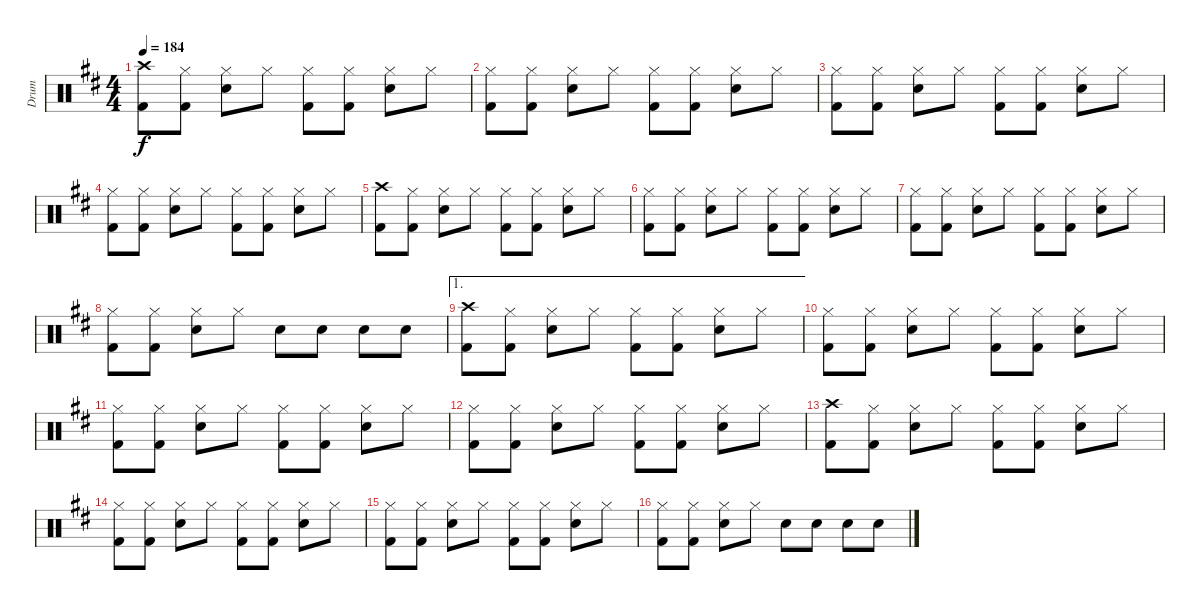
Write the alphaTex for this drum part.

\track ("Drum" "Drum") {instrument percussion}
\staff {score}
\articulation defaults
\ts (4 4)
\tempo 184
\clef neutral
\ks d
("Crash high (hit)" "Kick (hit) 2").8{dy f} ("Hi-Hat (closed)" "Kick (hit) 2").8 ("Hi-Hat (closed)" "Electric Snare (hit)").8 "Hi-Hat (closed)".8 ("Hi-Hat (closed)" "Kick (hit) 2").8 ("Hi-Hat (closed)" "Kick (hit) 2").8 ("Hi-Hat (closed)" "Electric Snare (hit)").8 "Hi-Hat (closed)".8 |
("Hi-Hat (closed)" "Kick (hit) 2").8 ("Hi-Hat (closed)" "Kick (hit) 2").8 ("Hi-Hat (closed)" "Electric Snare (hit)").8 "Hi-Hat (closed)".8 ("Hi-Hat (closed)" "Kick (hit) 2").8 ("Hi-Hat (closed)" "Kick (hit) 2").8 ("Hi-Hat (closed)" "Electric Snare (hit)").8 "Hi-Hat (closed)".8 |
("Hi-Hat (closed)" "Kick (hit) 2").8 ("Hi-Hat (closed)" "Kick (hit) 2").8 ("Hi-Hat (closed)" "Electric Snare (hit)").8 "Hi-Hat (closed)".8 ("Hi-Hat (closed)" "Kick (hit) 2").8 ("Hi-Hat (closed)" "Kick (hit) 2").8 ("Hi-Hat (closed)" "Electric Snare (hit)").8 "Hi-Hat (closed)".8 |
("Hi-Hat (closed)" "Kick (hit) 2").8 ("Hi-Hat (closed)" "Kick (hit) 2").8 ("Hi-Hat (closed)" "Electric Snare (hit)").8 "Hi-Hat (closed)".8 ("Hi-Hat (closed)" "Kick (hit) 2").8 ("Hi-Hat (closed)" "Kick (hit) 2").8 ("Hi-Hat (closed)" "Electric Snare (hit)").8 "Hi-Hat (closed)".8 |
("Crash high (hit)" "Kick (hit) 2").8 ("Hi-Hat (closed)" "Kick (hit) 2").8 ("Hi-Hat (closed)" "Electric Snare (hit)").8 "Hi-Hat (closed)".8 ("Hi-Hat (closed)" "Kick (hit) 2").8 ("Hi-Hat (closed)" "Kick (hit) 2").8 ("Hi-Hat (closed)" "Electric Snare (hit)").8 "Hi-Hat (closed)".8 |
("Hi-Hat (closed)" "Kick (hit) 2").8 ("Hi-Hat (closed)" "Kick (hit) 2").8 ("Hi-Hat (closed)" "Electric Snare (hit)").8 "Hi-Hat (closed)".8 ("Hi-Hat (closed)" "Kick (hit) 2").8 ("Hi-Hat (closed)" "Kick (hit) 2").8 ("Hi-Hat (closed)" "Electric Snare (hit)").8 "Hi-Hat (closed)".8 |
("Hi-Hat (closed)" "Kick (hit) 2").8 ("Hi-Hat (closed)" "Kick (hit) 2").8 ("Hi-Hat (closed)" "Electric Snare (hit)").8 "Hi-Hat (closed)".8 ("Hi-Hat (closed)" "Kick (hit) 2").8 ("Hi-Hat (closed)" "Kick (hit) 2").8 ("Hi-Hat (closed)" "Electric Snare (hit)").8 "Hi-Hat (closed)".8 |
("Hi-Hat (closed)" "Kick (hit) 2").8 ("Hi-Hat (closed)" "Kick (hit) 2").8 ("Hi-Hat (closed)" "Electric Snare (hit)").8 "Hi-Hat (closed)".8 "Electric Snare (hit)".8 "Electric Snare (hit)".8 "Electric Snare (hit)".8 "Electric Snare (hit)".8 |
\ae 1
("Crash high (hit)" "Kick (hit) 2").8 ("Hi-Hat (closed)" "Kick (hit) 2").8 ("Hi-Hat (closed)" "Electric Snare (hit)").8 "Hi-Hat (closed)".8 ("Hi-Hat (closed)" "Kick (hit) 2").8 ("Hi-Hat (closed)" "Kick (hit) 2").8 ("Hi-Hat (closed)" "Electric Snare (hit)").8 "Hi-Hat (closed)".8 |
("Hi-Hat (closed)" "Kick (hit) 2").8 ("Hi-Hat (closed)" "Kick (hit) 2").8 ("Hi-Hat (closed)" "Electric Snare (hit)").8 "Hi-Hat (closed)".8 ("Hi-Hat (closed)" "Kick (hit) 2").8 ("Hi-Hat (closed)" "Kick (hit) 2").8 ("Hi-Hat (closed)" "Electric Snare (hit)").8 "Hi-Hat (closed)".8 |
("Hi-Hat (closed)" "Kick (hit) 2").8 ("Hi-Hat (closed)" "Kick (hit) 2").8 ("Hi-Hat (closed)" "Electric Snare (hit)").8 "Hi-Hat (closed)".8 ("Hi-Hat (closed)" "Kick (hit) 2").8 ("Hi-Hat (closed)" "Kick (hit) 2").8 ("Hi-Hat (closed)" "Electric Snare (hit)").8 "Hi-Hat (closed)".8 |
("Hi-Hat (closed)" "Kick (hit) 2").8 ("Hi-Hat (closed)" "Kick (hit) 2").8 ("Hi-Hat (closed)" "Electric Snare (hit)").8 "Hi-Hat (closed)".8 ("Hi-Hat (closed)" "Kick (hit) 2").8 ("Hi-Hat (closed)" "Kick (hit) 2").8 ("Hi-Hat (closed)" "Electric Snare (hit)").8 "Hi-Hat (closed)".8 |
("Crash high (hit)" "Kick (hit) 2").8 ("Hi-Hat (closed)" "Kick (hit) 2").8 ("Hi-Hat (closed)" "Electric Snare (hit)").8 "Hi-Hat (closed)".8 ("Hi-Hat (closed)" "Kick (hit) 2").8 ("Hi-Hat (closed)" "Kick (hit) 2").8 ("Hi-Hat (closed)" "Electric Snare (hit)").8 "Hi-Hat (closed)".8 |
("Hi-Hat (closed)" "Kick (hit) 2").8 ("Hi-Hat (closed)" "Kick (hit) 2").8 ("Hi-Hat (closed)" "Electric Snare (hit)").8 "Hi-Hat (closed)".8 ("Hi-Hat (closed)" "Kick (hit) 2").8 ("Hi-Hat (closed)" "Kick (hit) 2").8 ("Hi-Hat (closed)" "Electric Snare (hit)").8 "Hi-Hat (closed)".8 |
("Hi-Hat (closed)" "Kick (hit) 2").8 ("Hi-Hat (closed)" "Kick (hit) 2").8 ("Hi-Hat (closed)" "Electric Snare (hit)").8 "Hi-Hat (closed)".8 ("Hi-Hat (closed)" "Kick (hit) 2").8 ("Hi-Hat (closed)" "Kick (hit) 2").8 ("Hi-Hat (closed)" "Electric Snare (hit)").8 "Hi-Hat (closed)".8 |
("Hi-Hat (closed)" "Kick (hit) 2").8 ("Hi-Hat (closed)" "Kick (hit) 2").8 ("Hi-Hat (closed)" "Electric Snare (hit)").8 "Hi-Hat (closed)".8 "Electric Snare (hit)".8 "Electric Snare (hit)".8 "Electric Snare (hit)".8 "Electric Snare (hit)".8
